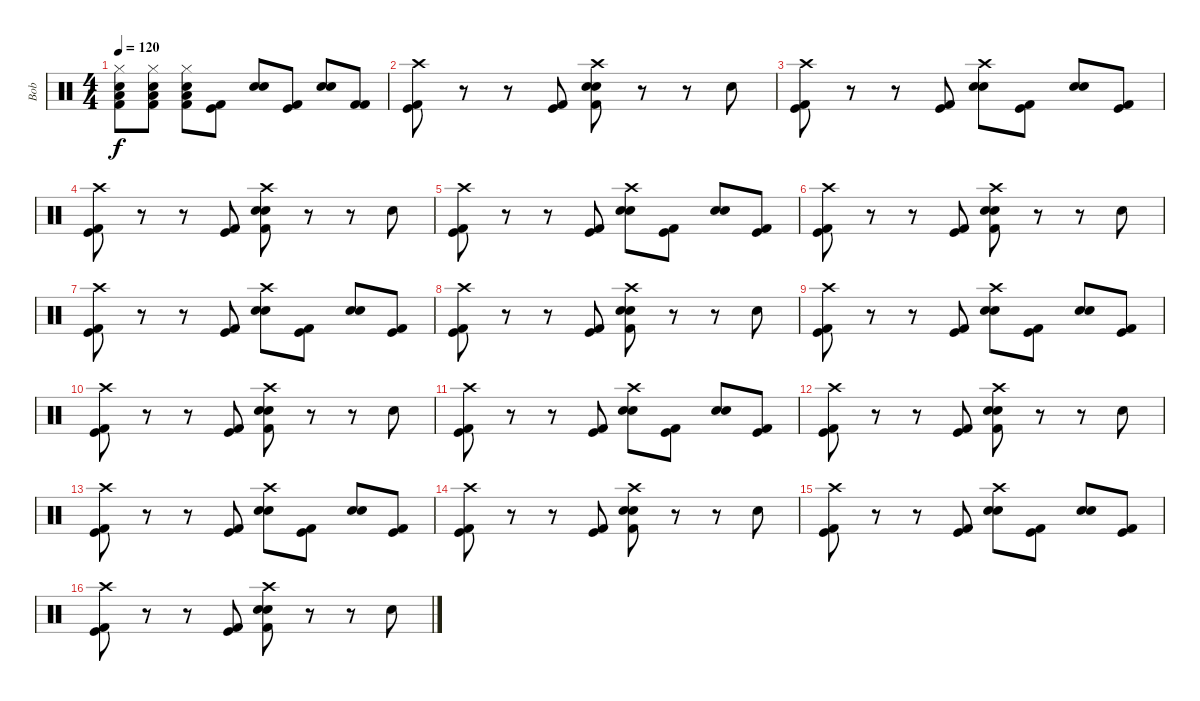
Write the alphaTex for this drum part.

\track ("Bob" "Bob") {instrument percussion}
\staff {score}
\articulation defaults
\ts (4 4)
\tempo 120
\clef neutral
\ks c
("Hi-Hat (closed)" "Snare (hit) 2" "Low Tom (hit)" "Kick (hit) 2").8{dy f volume 10} ("Hi-Hat (closed)" "Snare (hit) 2" "Low Tom (hit)" "Kick (hit) 2").8{volume 11} ("Hi-Hat (closed)" "Snare (hit) 2" "Low Tom (hit)" "Kick (hit) 2").8{volume 12} ("Kick (hit)" "Kick (hit) 2").8{volume 13} ("Electric Snare (hit)" "Snare (hit) 2").8 ("Kick (hit)" "Kick (hit) 2").8 ("Electric Snare (hit)" "Snare (hit) 2").8 ("Kick (hit) 2" "Kick (hit) 2").8 |
("Crash high (hit)" "Kick (hit)" "Kick (hit) 2").8 r.8 r.8 ("Kick (hit)" "Kick (hit) 2").8 ("Crash high (hit)" "Electric Snare (hit)" "Snare (hit) 2" "Kick (hit) 2").8 r.8 r.8 "Snare (hit) 2".8 |
("Crash high (hit)" "Kick (hit)" "Kick (hit) 2").8 r.8 r.8 ("Kick (hit)" "Kick (hit) 2").8 ("Crash high (hit)" "Electric Snare (hit)" "Snare (hit) 2").8 ("Kick (hit)" "Kick (hit) 2").8 ("Electric Snare (hit)" "Snare (hit) 2").8 ("Kick (hit)" "Kick (hit) 2").8 |
("Crash high (hit)" "Kick (hit)" "Kick (hit) 2").8 r.8 r.8 ("Kick (hit)" "Kick (hit) 2").8 ("Crash high (hit)" "Electric Snare (hit)" "Snare (hit) 2" "Kick (hit) 2").8 r.8 r.8 "Snare (hit) 2".8 |
("Crash high (hit)" "Kick (hit)" "Kick (hit) 2").8 r.8 r.8 ("Kick (hit)" "Kick (hit) 2").8 ("Crash high (hit)" "Electric Snare (hit)" "Snare (hit) 2").8 ("Kick (hit)" "Kick (hit) 2").8 ("Electric Snare (hit)" "Snare (hit) 2").8 ("Kick (hit)" "Kick (hit) 2").8 |
("Crash high (hit)" "Kick (hit)" "Kick (hit) 2").8 r.8 r.8 ("Kick (hit)" "Kick (hit) 2").8 ("Crash high (hit)" "Electric Snare (hit)" "Snare (hit) 2" "Kick (hit) 2").8 r.8 r.8 "Snare (hit) 2".8 |
("Crash high (hit)" "Kick (hit)" "Kick (hit) 2").8 r.8 r.8 ("Kick (hit)" "Kick (hit) 2").8 ("Crash high (hit)" "Electric Snare (hit)" "Snare (hit) 2").8 ("Kick (hit)" "Kick (hit) 2").8 ("Electric Snare (hit)" "Snare (hit) 2").8 ("Kick (hit)" "Kick (hit) 2").8 |
("Crash high (hit)" "Kick (hit)" "Kick (hit) 2").8 r.8 r.8 ("Kick (hit)" "Kick (hit) 2").8 ("Crash high (hit)" "Electric Snare (hit)" "Snare (hit) 2" "Kick (hit) 2").8 r.8 r.8 "Snare (hit) 2".8 |
("Crash high (hit)" "Kick (hit)" "Kick (hit) 2").8 r.8 r.8 ("Kick (hit)" "Kick (hit) 2").8 ("Crash high (hit)" "Electric Snare (hit)" "Snare (hit) 2").8 ("Kick (hit)" "Kick (hit) 2").8 ("Electric Snare (hit)" "Snare (hit) 2").8 ("Kick (hit)" "Kick (hit) 2").8 |
("Crash high (hit)" "Kick (hit)" "Kick (hit) 2").8 r.8 r.8 ("Kick (hit)" "Kick (hit) 2").8 ("Crash high (hit)" "Electric Snare (hit)" "Snare (hit) 2" "Kick (hit) 2").8 r.8 r.8 "Snare (hit) 2".8 |
("Crash high (hit)" "Kick (hit)" "Kick (hit) 2").8 r.8 r.8 ("Kick (hit)" "Kick (hit) 2").8 ("Crash high (hit)" "Electric Snare (hit)" "Snare (hit) 2").8 ("Kick (hit)" "Kick (hit) 2").8 ("Electric Snare (hit)" "Snare (hit) 2").8 ("Kick (hit)" "Kick (hit) 2").8 |
("Crash high (hit)" "Kick (hit)" "Kick (hit) 2").8 r.8 r.8 ("Kick (hit)" "Kick (hit) 2").8 ("Crash high (hit)" "Electric Snare (hit)" "Snare (hit) 2" "Kick (hit) 2").8 r.8 r.8 "Snare (hit) 2".8 |
("Crash high (hit)" "Kick (hit)" "Kick (hit) 2").8 r.8 r.8 ("Kick (hit)" "Kick (hit) 2").8 ("Crash high (hit)" "Electric Snare (hit)" "Snare (hit) 2").8 ("Kick (hit)" "Kick (hit) 2").8 ("Electric Snare (hit)" "Snare (hit) 2").8 ("Kick (hit)" "Kick (hit) 2").8 |
("Crash high (hit)" "Kick (hit)" "Kick (hit) 2").8 r.8 r.8 ("Kick (hit)" "Kick (hit) 2").8 ("Crash high (hit)" "Electric Snare (hit)" "Snare (hit) 2" "Kick (hit) 2").8 r.8 r.8 "Snare (hit) 2".8 |
("Crash high (hit)" "Kick (hit)" "Kick (hit) 2").8 r.8 r.8 ("Kick (hit)" "Kick (hit) 2").8 ("Crash high (hit)" "Electric Snare (hit)" "Snare (hit) 2").8 ("Kick (hit)" "Kick (hit) 2").8 ("Electric Snare (hit)" "Snare (hit) 2").8 ("Kick (hit)" "Kick (hit) 2").8 |
("Crash high (hit)" "Kick (hit)" "Kick (hit) 2").8 r.8 r.8 ("Kick (hit)" "Kick (hit) 2").8 ("Crash high (hit)" "Electric Snare (hit)" "Snare (hit) 2" "Kick (hit) 2").8 r.8 r.8 "Snare (hit) 2".8
